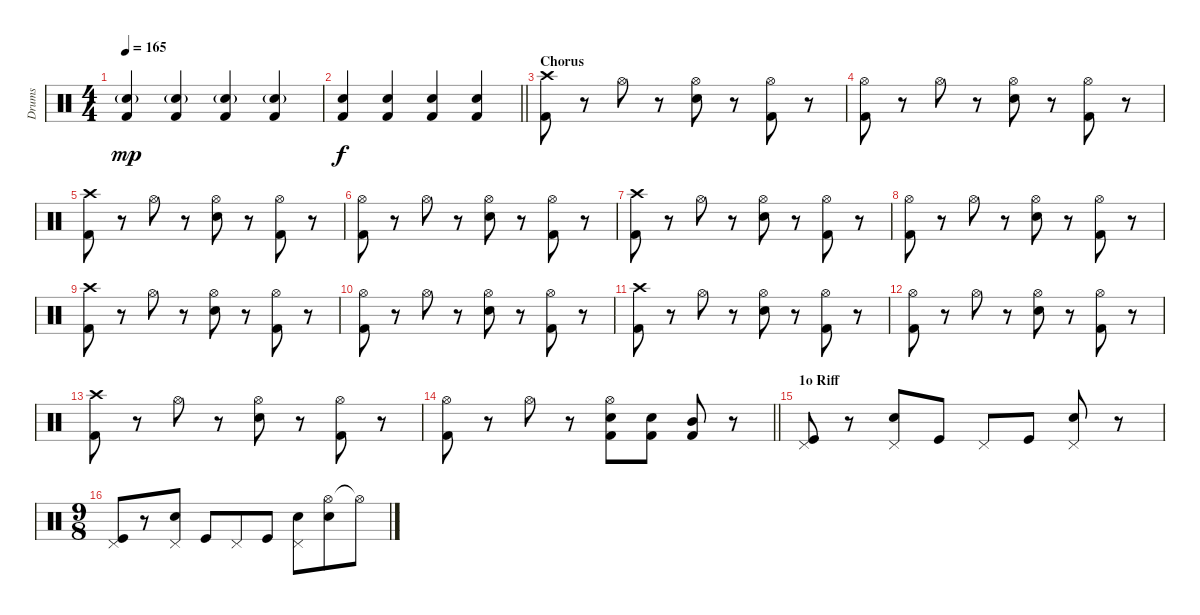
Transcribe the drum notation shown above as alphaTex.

\track ("Drums" "Drums") {instrument percussion}
\staff {score}
\articulation defaults
\ts (4 4)
\tempo 165
\clef neutral
\ks c
("Electric Snare (hit)"{g} "Kick (hit) 2").4{dy mp} ("Electric Snare (hit)"{g} "Kick (hit) 2").4 ("Electric Snare (hit)"{g} "Kick (hit) 2").4 ("Electric Snare (hit)"{g} "Kick (hit) 2").4 |
\barLineRight lightlight
("Electric Snare (hit)" "Kick (hit) 2").4{dy f} ("Electric Snare (hit)" "Kick (hit) 2").4 ("Electric Snare (hit)" "Kick (hit) 2").4 ("Electric Snare (hit)" "Kick (hit) 2").4 |
\section ("" "Chorus")
("Crash high (hit)" "Kick (hit) 2").8 r.8 "Hi-Hat (open)".8 r.8 ("Hi-Hat (open)" "Electric Snare (hit)").8 r.8 ("Hi-Hat (open)" "Kick (hit) 2").8 r.8 |
("Hi-Hat (open)" "Kick (hit) 2").8 r.8 "Hi-Hat (open)".8 r.8 ("Hi-Hat (open)" "Electric Snare (hit)").8 r.8 ("Hi-Hat (open)" "Kick (hit) 2").8 r.8 |
("Crash high (hit)" "Kick (hit) 2").8 r.8 "Hi-Hat (open)".8 r.8 ("Hi-Hat (open)" "Electric Snare (hit)").8 r.8 ("Hi-Hat (open)" "Kick (hit) 2").8 r.8 |
("Hi-Hat (open)" "Kick (hit) 2").8 r.8 "Hi-Hat (open)".8 r.8 ("Hi-Hat (open)" "Electric Snare (hit)").8 r.8 ("Hi-Hat (open)" "Kick (hit) 2").8 r.8 |
("Crash high (hit)" "Kick (hit) 2").8 r.8 "Hi-Hat (open)".8 r.8 ("Hi-Hat (open)" "Electric Snare (hit)").8 r.8 ("Hi-Hat (open)" "Kick (hit) 2").8 r.8 |
("Hi-Hat (open)" "Kick (hit) 2").8 r.8 "Hi-Hat (open)".8 r.8 ("Hi-Hat (open)" "Electric Snare (hit)").8 r.8 ("Hi-Hat (open)" "Kick (hit) 2").8 r.8 |
("Crash high (hit)" "Kick (hit) 2").8 r.8 "Hi-Hat (open)".8 r.8 ("Hi-Hat (open)" "Electric Snare (hit)").8 r.8 ("Hi-Hat (open)" "Kick (hit) 2").8 r.8 |
("Hi-Hat (open)" "Kick (hit) 2").8 r.8 "Hi-Hat (open)".8 r.8 ("Hi-Hat (open)" "Electric Snare (hit)").8 r.8 ("Hi-Hat (open)" "Kick (hit) 2").8 r.8 |
("Crash high (hit)" "Kick (hit) 2").8 r.8 "Hi-Hat (open)".8 r.8 ("Hi-Hat (open)" "Electric Snare (hit)").8 r.8 ("Hi-Hat (open)" "Kick (hit) 2").8 r.8 |
("Hi-Hat (open)" "Kick (hit) 2").8 r.8 "Hi-Hat (open)".8 r.8 ("Hi-Hat (open)" "Electric Snare (hit)").8 r.8 ("Hi-Hat (open)" "Kick (hit) 2").8 r.8 |
("Crash high (hit)" "Kick (hit) 2").8 r.8 "Hi-Hat (open)".8 r.8 ("Hi-Hat (open)" "Electric Snare (hit)").8 r.8 ("Hi-Hat (open)" "Kick (hit) 2").8 r.8 |
\barLineRight lightlight
("Hi-Hat (open)" "Kick (hit) 2").8 r.8 "Hi-Hat (open)".8 r.8 ("Hi-Hat (open)" "Electric Snare (hit)" "Kick (hit) 2").8 ("Electric Snare (hit)" "Kick (hit) 2").8 ("Mid Tom (hit)" "Kick (hit) 2").8 r.8 |
\section ("" "1o Riff")
("Pedal Hi-Hat (hit)" "Kick (hit)").8 r.8 ("Pedal Hi-Hat (hit)" "Electric Snare (hit)").8 "Kick (hit)".8 "Pedal Hi-Hat (hit)".8 "Kick (hit)".8 ("Pedal Hi-Hat (hit)" "Electric Snare (hit)").8 r.8 |
\ts (9 8)
("Pedal Hi-Hat (hit)" "Kick (hit)").8 r.8 ("Pedal Hi-Hat (hit)" "Electric Snare (hit)").8 "Kick (hit)".8 "Pedal Hi-Hat (hit)".8 "Kick (hit)".8 ("Pedal Hi-Hat (hit)" "Electric Snare (hit)").8 ("Hi-Hat (open)" "Electric Snare (hit)").8 "Hi-Hat (open)"{t}.8
